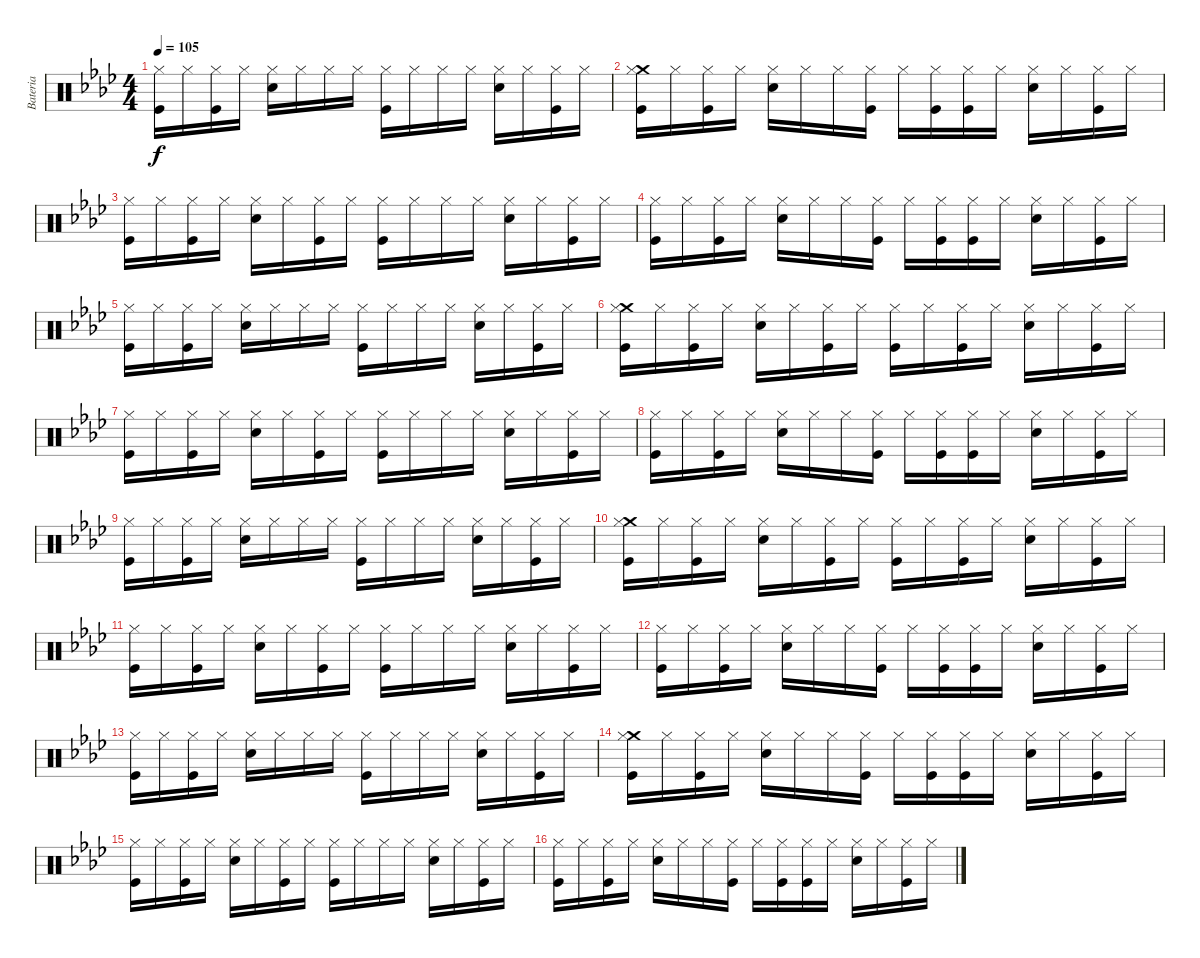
\track ("Bateria" "Bateria") {instrument percussion}
\staff {score}
\articulation defaults
\ts (4 4)
\tempo 105
\clef neutral
\ks fminor
("Kick (hit)" "Hi-Hat (closed)").16{dy f} "Hi-Hat (closed)".16 ("Kick (hit)" "Hi-Hat (closed)").16 "Hi-Hat (closed)".16 ("Snare (hit) 2" "Hi-Hat (closed)").16 "Hi-Hat (closed)".16 "Hi-Hat (closed)".16 "Hi-Hat (closed)".16 ("Hi-Hat (closed)" "Kick (hit)").16 "Hi-Hat (closed)".16 "Hi-Hat (closed)".16 "Hi-Hat (closed)".16 ("Hi-Hat (closed)" "Snare (hit) 2").16 "Hi-Hat (closed)".16 ("Hi-Hat (closed)" "Kick (hit)").16 "Hi-Hat (closed)".16 |
("Crash medium (hit)" "Kick (hit)" "Hi-Hat (closed)").16 "Hi-Hat (closed)".16 ("Kick (hit)" "Hi-Hat (closed)").16 "Hi-Hat (closed)".16 ("Snare (hit) 2" "Hi-Hat (closed)").16 "Hi-Hat (closed)".16 "Hi-Hat (closed)".16 ("Hi-Hat (closed)" "Kick (hit)").16 "Hi-Hat (closed)".16 ("Kick (hit)" "Hi-Hat (closed)").16 ("Hi-Hat (closed)" "Kick (hit)").16 "Hi-Hat (closed)".16 ("Hi-Hat (closed)" "Snare (hit) 2").16 "Hi-Hat (closed)".16 ("Hi-Hat (closed)" "Kick (hit)").16 "Hi-Hat (closed)".16 |
("Kick (hit)" "Hi-Hat (closed)").16 "Hi-Hat (closed)".16 ("Kick (hit)" "Hi-Hat (closed)").16 "Hi-Hat (closed)".16 ("Snare (hit) 2" "Hi-Hat (closed)").16 "Hi-Hat (closed)".16 ("Hi-Hat (closed)" "Kick (hit)").16 "Hi-Hat (closed)".16 ("Hi-Hat (closed)" "Kick (hit)").16 "Hi-Hat (closed)".16 "Hi-Hat (closed)".16 "Hi-Hat (closed)".16 ("Hi-Hat (closed)" "Snare (hit) 2").16 "Hi-Hat (closed)".16 ("Hi-Hat (closed)" "Kick (hit)").16 "Hi-Hat (closed)".16 |
("Kick (hit)" "Hi-Hat (closed)").16 "Hi-Hat (closed)".16 ("Kick (hit)" "Hi-Hat (closed)").16 "Hi-Hat (closed)".16 ("Snare (hit) 2" "Hi-Hat (closed)").16 "Hi-Hat (closed)".16 "Hi-Hat (closed)".16 ("Hi-Hat (closed)" "Kick (hit)").16 "Hi-Hat (closed)".16 ("Kick (hit)" "Hi-Hat (closed)").16 ("Hi-Hat (closed)" "Kick (hit)").16 "Hi-Hat (closed)".16 ("Hi-Hat (closed)" "Snare (hit) 2").16 "Hi-Hat (closed)".16 ("Hi-Hat (closed)" "Kick (hit)").16 "Hi-Hat (closed)".16 |
("Kick (hit)" "Hi-Hat (closed)").16 "Hi-Hat (closed)".16 ("Kick (hit)" "Hi-Hat (closed)").16 "Hi-Hat (closed)".16 ("Snare (hit) 2" "Hi-Hat (closed)").16 "Hi-Hat (closed)".16 "Hi-Hat (closed)".16 "Hi-Hat (closed)".16 ("Hi-Hat (closed)" "Kick (hit)").16 "Hi-Hat (closed)".16 "Hi-Hat (closed)".16 "Hi-Hat (closed)".16 ("Hi-Hat (closed)" "Snare (hit) 2").16 "Hi-Hat (closed)".16 ("Hi-Hat (closed)" "Kick (hit)").16 "Hi-Hat (closed)".16 |
("Crash medium (hit)" "Kick (hit)" "Hi-Hat (closed)").16 "Hi-Hat (closed)".16 ("Kick (hit)" "Hi-Hat (closed)").16 "Hi-Hat (closed)".16 ("Snare (hit) 2" "Hi-Hat (closed)").16 "Hi-Hat (closed)".16 ("Hi-Hat (closed)" "Kick (hit)").16 "Hi-Hat (closed)".16 ("Hi-Hat (closed)" "Kick (hit)").16 "Hi-Hat (closed)".16 ("Hi-Hat (closed)" "Kick (hit)").16 "Hi-Hat (closed)".16 ("Hi-Hat (closed)" "Snare (hit) 2").16 "Hi-Hat (closed)".16 ("Hi-Hat (closed)" "Kick (hit)").16 "Hi-Hat (closed)".16 |
("Kick (hit)" "Hi-Hat (closed)").16 "Hi-Hat (closed)".16 ("Kick (hit)" "Hi-Hat (closed)").16 "Hi-Hat (closed)".16 ("Snare (hit) 2" "Hi-Hat (closed)").16 "Hi-Hat (closed)".16 ("Hi-Hat (closed)" "Kick (hit)").16 "Hi-Hat (closed)".16 ("Hi-Hat (closed)" "Kick (hit)").16 "Hi-Hat (closed)".16 "Hi-Hat (closed)".16 "Hi-Hat (closed)".16 ("Hi-Hat (closed)" "Snare (hit) 2").16 "Hi-Hat (closed)".16 ("Hi-Hat (closed)" "Kick (hit)").16 "Hi-Hat (closed)".16 |
("Kick (hit)" "Hi-Hat (closed)").16 "Hi-Hat (closed)".16 ("Kick (hit)" "Hi-Hat (closed)").16 "Hi-Hat (closed)".16 ("Snare (hit) 2" "Hi-Hat (closed)").16 "Hi-Hat (closed)".16 "Hi-Hat (closed)".16 ("Hi-Hat (closed)" "Kick (hit)").16 "Hi-Hat (closed)".16 ("Kick (hit)" "Hi-Hat (closed)").16 ("Hi-Hat (closed)" "Kick (hit)").16 "Hi-Hat (closed)".16 ("Hi-Hat (closed)" "Snare (hit) 2").16 "Hi-Hat (closed)".16 ("Hi-Hat (closed)" "Kick (hit)").16 "Hi-Hat (closed)".16 |
("Kick (hit)" "Hi-Hat (closed)").16 "Hi-Hat (closed)".16 ("Kick (hit)" "Hi-Hat (closed)").16 "Hi-Hat (closed)".16 ("Snare (hit) 2" "Hi-Hat (closed)").16 "Hi-Hat (closed)".16 "Hi-Hat (closed)".16 "Hi-Hat (closed)".16 ("Hi-Hat (closed)" "Kick (hit)").16 "Hi-Hat (closed)".16 "Hi-Hat (closed)".16 "Hi-Hat (closed)".16 ("Hi-Hat (closed)" "Snare (hit) 2").16 "Hi-Hat (closed)".16 ("Hi-Hat (closed)" "Kick (hit)").16 "Hi-Hat (closed)".16 |
("Crash medium (hit)" "Kick (hit)" "Hi-Hat (closed)").16 "Hi-Hat (closed)".16 ("Kick (hit)" "Hi-Hat (closed)").16 "Hi-Hat (closed)".16 ("Snare (hit) 2" "Hi-Hat (closed)").16 "Hi-Hat (closed)".16 ("Hi-Hat (closed)" "Kick (hit)").16 "Hi-Hat (closed)".16 ("Hi-Hat (closed)" "Kick (hit)").16 "Hi-Hat (closed)".16 ("Hi-Hat (closed)" "Kick (hit)").16 "Hi-Hat (closed)".16 ("Hi-Hat (closed)" "Snare (hit) 2").16 "Hi-Hat (closed)".16 ("Hi-Hat (closed)" "Kick (hit)").16 "Hi-Hat (closed)".16 |
("Kick (hit)" "Hi-Hat (closed)").16 "Hi-Hat (closed)".16 ("Kick (hit)" "Hi-Hat (closed)").16 "Hi-Hat (closed)".16 ("Snare (hit) 2" "Hi-Hat (closed)").16 "Hi-Hat (closed)".16 ("Hi-Hat (closed)" "Kick (hit)").16 "Hi-Hat (closed)".16 ("Hi-Hat (closed)" "Kick (hit)").16 "Hi-Hat (closed)".16 "Hi-Hat (closed)".16 "Hi-Hat (closed)".16 ("Hi-Hat (closed)" "Snare (hit) 2").16 "Hi-Hat (closed)".16 ("Hi-Hat (closed)" "Kick (hit)").16 "Hi-Hat (closed)".16 |
("Kick (hit)" "Hi-Hat (closed)").16 "Hi-Hat (closed)".16 ("Kick (hit)" "Hi-Hat (closed)").16 "Hi-Hat (closed)".16 ("Snare (hit) 2" "Hi-Hat (closed)").16 "Hi-Hat (closed)".16 "Hi-Hat (closed)".16 ("Hi-Hat (closed)" "Kick (hit)").16 "Hi-Hat (closed)".16 ("Kick (hit)" "Hi-Hat (closed)").16 ("Hi-Hat (closed)" "Kick (hit)").16 "Hi-Hat (closed)".16 ("Hi-Hat (closed)" "Snare (hit) 2").16 "Hi-Hat (closed)".16 ("Hi-Hat (closed)" "Kick (hit)").16 "Hi-Hat (closed)".16 |
("Kick (hit)" "Hi-Hat (closed)").16 "Hi-Hat (closed)".16 ("Kick (hit)" "Hi-Hat (closed)").16 "Hi-Hat (closed)".16 ("Snare (hit) 2" "Hi-Hat (closed)").16 "Hi-Hat (closed)".16 "Hi-Hat (closed)".16 "Hi-Hat (closed)".16 ("Hi-Hat (closed)" "Kick (hit)").16 "Hi-Hat (closed)".16 "Hi-Hat (closed)".16 "Hi-Hat (closed)".16 ("Hi-Hat (closed)" "Snare (hit) 2").16 "Hi-Hat (closed)".16 ("Hi-Hat (closed)" "Kick (hit)").16 "Hi-Hat (closed)".16 |
("Crash medium (hit)" "Kick (hit)" "Hi-Hat (closed)").16 "Hi-Hat (closed)".16 ("Kick (hit)" "Hi-Hat (closed)").16 "Hi-Hat (closed)".16 ("Snare (hit) 2" "Hi-Hat (closed)").16 "Hi-Hat (closed)".16 "Hi-Hat (closed)".16 ("Hi-Hat (closed)" "Kick (hit)").16 "Hi-Hat (closed)".16 ("Kick (hit)" "Hi-Hat (closed)").16 ("Hi-Hat (closed)" "Kick (hit)").16 "Hi-Hat (closed)".16 ("Hi-Hat (closed)" "Snare (hit) 2").16 "Hi-Hat (closed)".16 ("Hi-Hat (closed)" "Kick (hit)").16 "Hi-Hat (closed)".16 |
("Kick (hit)" "Hi-Hat (closed)").16 "Hi-Hat (closed)".16 ("Kick (hit)" "Hi-Hat (closed)").16 "Hi-Hat (closed)".16 ("Snare (hit) 2" "Hi-Hat (closed)").16 "Hi-Hat (closed)".16 ("Hi-Hat (closed)" "Kick (hit)").16 "Hi-Hat (closed)".16 ("Hi-Hat (closed)" "Kick (hit)").16 "Hi-Hat (closed)".16 "Hi-Hat (closed)".16 "Hi-Hat (closed)".16 ("Hi-Hat (closed)" "Snare (hit) 2").16 "Hi-Hat (closed)".16 ("Hi-Hat (closed)" "Kick (hit)").16 "Hi-Hat (closed)".16 |
("Kick (hit)" "Hi-Hat (closed)").16 "Hi-Hat (closed)".16 ("Kick (hit)" "Hi-Hat (closed)").16 "Hi-Hat (closed)".16 ("Snare (hit) 2" "Hi-Hat (closed)").16 "Hi-Hat (closed)".16 "Hi-Hat (closed)".16 ("Hi-Hat (closed)" "Kick (hit)").16 "Hi-Hat (closed)".16 ("Kick (hit)" "Hi-Hat (closed)").16 ("Hi-Hat (closed)" "Kick (hit)").16 "Hi-Hat (closed)".16 ("Hi-Hat (closed)" "Snare (hit) 2").16 "Hi-Hat (closed)".16 ("Hi-Hat (closed)" "Kick (hit)").16 "Hi-Hat (closed)".16
